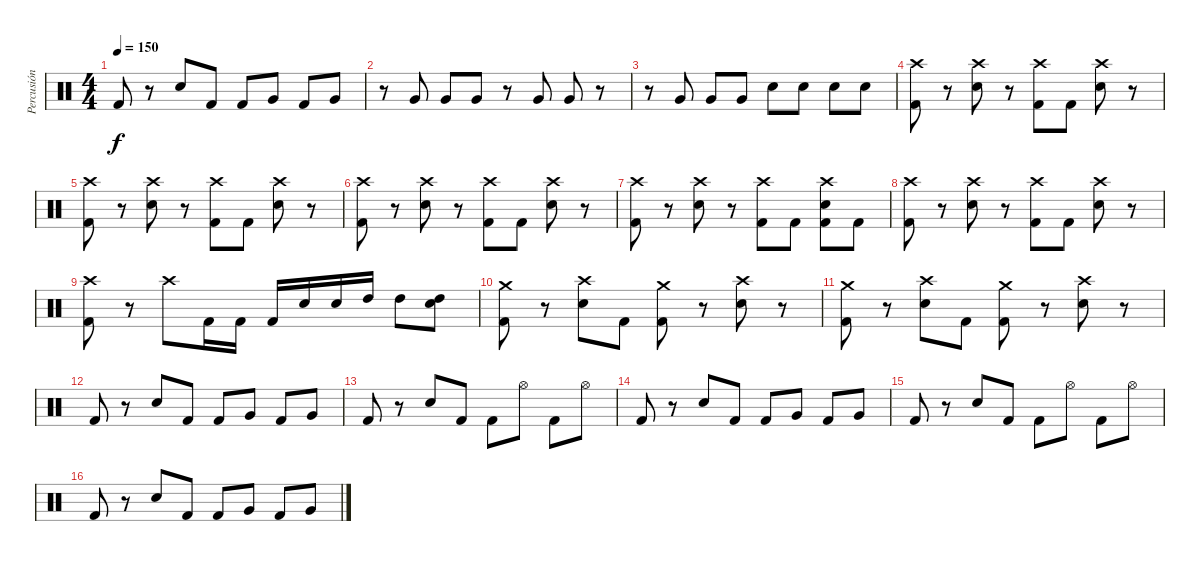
\track ("Percusión" "Percusión") {instrument percussion}
\staff {score}
\articulation defaults
\ts (4 4)
\tempo 150
\clef neutral
\ks c "Kick (hit) 2".8{dy f}
r.8 "Snare (hit) 2".8 "Kick (hit) 2".8 "Kick (hit) 2".8 "Very Low Tom (hit)".8 "Kick (hit) 2".8 "Very Low Tom (hit)".8 |
r.8 "Very Low Tom (hit)".8 "Very Low Tom (hit)".8 "Very Low Tom (hit)".8 r.8 "Very Low Tom (hit)".8 "Very Low Tom (hit)".8 r.8 |
r.8 "Very Low Tom (hit)".8 "Very Low Tom (hit)".8 "Very Low Tom (hit)".8 "Snare (hit) 2".8 "Snare (hit) 2".8 "Snare (hit) 2".8 "Snare (hit) 2".8 |
("Crash high (hit)" "Kick (hit) 2").8 r.8 ("Crash high (hit)" "Snare (hit) 2").8 r.8 ("Crash high (hit)" "Kick (hit) 2").8 "Kick (hit) 2".8 ("Crash high (hit)" "Snare (hit) 2").8 r.8 |
("Crash high (hit)" "Kick (hit) 2").8 r.8 ("Crash high (hit)" "Snare (hit) 2").8 r.8 ("Crash high (hit)" "Kick (hit) 2").8 "Kick (hit) 2".8 ("Crash high (hit)" "Snare (hit) 2").8 r.8 |
("Crash high (hit)" "Kick (hit) 2").8 r.8 ("Crash high (hit)" "Snare (hit) 2").8 r.8 ("Crash high (hit)" "Kick (hit) 2").8 "Kick (hit) 2".8 ("Crash high (hit)" "Snare (hit) 2").8 r.8 |
("Crash high (hit)" "Kick (hit) 2").8 r.8 ("Crash high (hit)" "Snare (hit) 2").8 r.8 ("Crash high (hit)" "Kick (hit) 2").8 "Kick (hit) 2".8 ("Crash high (hit)" "Snare (hit) 2" "Kick (hit) 2").8 "Kick (hit) 2".8 |
("Crash high (hit)" "Kick (hit) 2").8 r.8 ("Crash high (hit)" "Snare (hit) 2").8 r.8 ("Crash high (hit)" "Kick (hit) 2").8 "Kick (hit) 2".8 ("Crash high (hit)" "Snare (hit) 2").8 r.8 |
("Crash high (hit)" "Kick (hit) 2").8 r.8 "Crash high (hit)".8 "Kick (hit) 2".16 "Kick (hit) 2".16 "Kick (hit) 2".16 "Snare (hit) 2".16 "Snare (hit) 2".16 "High Tom (hit)".16 "High Tom (hit)".8 ("High Tom (hit)" "Snare (hit) 2").8 |
("Crash medium (hit)" "Kick (hit) 2").8 r.8 ("Crash high (hit)" "Snare (hit) 2").8 "Kick (hit) 2".8 ("Crash medium (hit)" "Kick (hit) 2").8 r.8 ("Crash high (hit)" "Snare (hit) 2").8 r.8 |
("Crash medium (hit)" "Kick (hit) 2").8 r.8 ("Crash high (hit)" "Snare (hit) 2").8 "Kick (hit) 2".8 ("Crash medium (hit)" "Kick (hit) 2").8 r.8 ("Crash high (hit)" "Snare (hit) 2").8 r.8 |
"Kick (hit) 2".8 r.8 "Snare (hit) 2".8 "Kick (hit) 2".8 "Kick (hit) 2".8 "Very Low Tom (hit)".8 "Kick (hit) 2".8 "Very Low Tom (hit)".8 |
"Kick (hit) 2".8 r.8 "Snare (hit) 2".8 "Kick (hit) 2".8 "Kick (hit) 2".8 "Hi-Hat (open)".8 "Kick (hit) 2".8 "Hi-Hat (open)".8 |
"Kick (hit) 2".8 r.8 "Snare (hit) 2".8 "Kick (hit) 2".8 "Kick (hit) 2".8 "Very Low Tom (hit)".8 "Kick (hit) 2".8 "Very Low Tom (hit)".8 |
"Kick (hit) 2".8 r.8 "Snare (hit) 2".8 "Kick (hit) 2".8 "Kick (hit) 2".8 "Hi-Hat (open)".8 "Kick (hit) 2".8 "Hi-Hat (open)".8 |
"Kick (hit) 2".8 r.8 "Snare (hit) 2".8 "Kick (hit) 2".8 "Kick (hit) 2".8 "Very Low Tom (hit)".8 "Kick (hit) 2".8 "Very Low Tom (hit)".8
